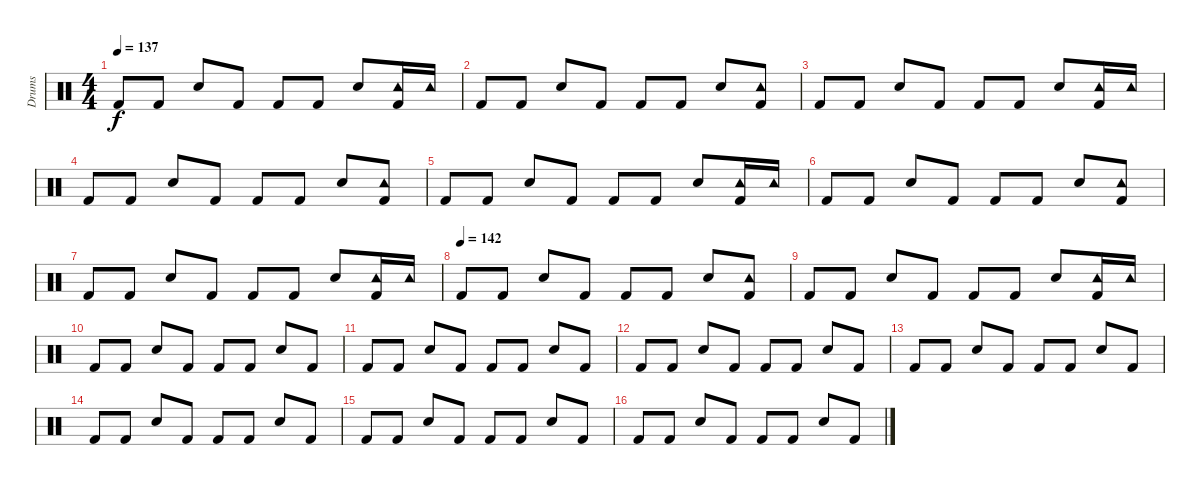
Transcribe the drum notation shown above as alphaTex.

\track ("Drums" "Drums") {instrument percussion}
\staff {score}
\articulation defaults
\ts (4 4)
\tempo 137
\clef neutral
\ks c "Kick (hit) 2".8{dy f} "Kick (hit) 2".8 "Snare (hit) 2".8 "Kick (hit) 2".8 "Kick (hit) 2".8 "Kick (hit) 2".8 "Snare (hit) 2".8
("Tambourine (hit)" "Kick (hit) 2").16 "Tambourine (hit)".16 |
"Kick (hit) 2".8 "Kick (hit) 2".8 "Snare (hit) 2".8 "Kick (hit) 2".8 "Kick (hit) 2".8 "Kick (hit) 2".8 "Snare (hit) 2".8 ("Tambourine (hit)" "Kick (hit) 2").8 |
"Kick (hit) 2".8 "Kick (hit) 2".8 "Snare (hit) 2".8 "Kick (hit) 2".8 "Kick (hit) 2".8 "Kick (hit) 2".8 "Snare (hit) 2".8 ("Tambourine (hit)" "Kick (hit) 2").16 "Tambourine (hit)".16 |
"Kick (hit) 2".8 "Kick (hit) 2".8 "Snare (hit) 2".8 "Kick (hit) 2".8 "Kick (hit) 2".8 "Kick (hit) 2".8 "Snare (hit) 2".8 ("Tambourine (hit)" "Kick (hit) 2").8 |
"Kick (hit) 2".8 "Kick (hit) 2".8 "Snare (hit) 2".8 "Kick (hit) 2".8 "Kick (hit) 2".8 "Kick (hit) 2".8 "Snare (hit) 2".8 ("Tambourine (hit)" "Kick (hit) 2").16 "Tambourine (hit)".16 |
"Kick (hit) 2".8 "Kick (hit) 2".8 "Snare (hit) 2".8 "Kick (hit) 2".8 "Kick (hit) 2".8 "Kick (hit) 2".8 "Snare (hit) 2".8 ("Tambourine (hit)" "Kick (hit) 2").8 |
"Kick (hit) 2".8 "Kick (hit) 2".8 "Snare (hit) 2".8 "Kick (hit) 2".8 "Kick (hit) 2".8 "Kick (hit) 2".8 "Snare (hit) 2".8 ("Tambourine (hit)" "Kick (hit) 2").16 "Tambourine (hit)".16 |
\tempo (142)
"Kick (hit) 2".8 "Kick (hit) 2".8 "Snare (hit) 2".8 "Kick (hit) 2".8 "Kick (hit) 2".8 "Kick (hit) 2".8 "Snare (hit) 2".8 ("Tambourine (hit)" "Kick (hit) 2").8 |
"Kick (hit) 2".8 "Kick (hit) 2".8 "Snare (hit) 2".8 "Kick (hit) 2".8 "Kick (hit) 2".8 "Kick (hit) 2".8 "Snare (hit) 2".8 ("Tambourine (hit)" "Kick (hit) 2").16 "Tambourine (hit)".16 |
"Kick (hit) 2".8 "Kick (hit) 2".8 "Snare (hit) 2".8 "Kick (hit) 2".8 "Kick (hit) 2".8 "Kick (hit) 2".8 "Snare (hit) 2".8 "Kick (hit) 2".8 |
"Kick (hit) 2".8 "Kick (hit) 2".8 "Snare (hit) 2".8 "Kick (hit) 2".8 "Kick (hit) 2".8 "Kick (hit) 2".8 "Snare (hit) 2".8 "Kick (hit) 2".8 |
"Kick (hit) 2".8 "Kick (hit) 2".8 "Snare (hit) 2".8 "Kick (hit) 2".8 "Kick (hit) 2".8 "Kick (hit) 2".8 "Snare (hit) 2".8 "Kick (hit) 2".8 |
"Kick (hit) 2".8 "Kick (hit) 2".8 "Snare (hit) 2".8 "Kick (hit) 2".8 "Kick (hit) 2".8 "Kick (hit) 2".8 "Snare (hit) 2".8 "Kick (hit) 2".8 |
"Kick (hit) 2".8 "Kick (hit) 2".8 "Snare (hit) 2".8 "Kick (hit) 2".8 "Kick (hit) 2".8 "Kick (hit) 2".8 "Snare (hit) 2".8 "Kick (hit) 2".8 |
"Kick (hit) 2".8 "Kick (hit) 2".8 "Snare (hit) 2".8 "Kick (hit) 2".8 "Kick (hit) 2".8 "Kick (hit) 2".8 "Snare (hit) 2".8 "Kick (hit) 2".8 |
"Kick (hit) 2".8 "Kick (hit) 2".8 "Snare (hit) 2".8 "Kick (hit) 2".8 "Kick (hit) 2".8 "Kick (hit) 2".8 "Snare (hit) 2".8 "Kick (hit) 2".8
